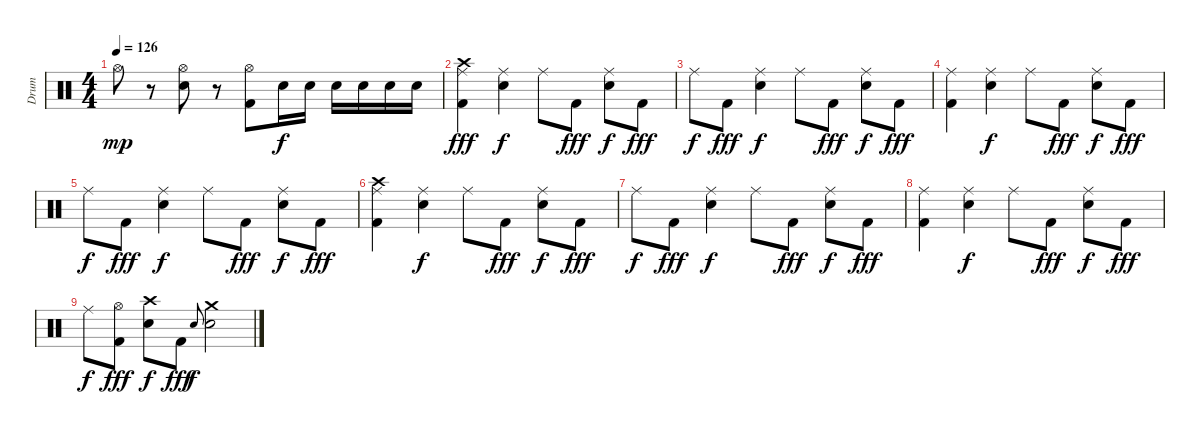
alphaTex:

\track ("Drum" "Drum") {instrument percussion}
\staff {score}
\articulation defaults
\ts (4 4)
\tempo 126
\clef neutral
\ks c "Hi-Hat (open)".8{dy mp}
r.8 ("Electric Snare (hit)" "Hi-Hat (open)").8 r.8 ("Kick (hit) 2" "Hi-Hat (open)").8 "Electric Snare (hit)".16{dy f} "Electric Snare (hit)".16 "Electric Snare (hit)".16 "Electric Snare (hit)".16 "Electric Snare (hit)".16 "Electric Snare (hit)".16 |
("Kick (hit) 2" "Ride (middle)" "Crash high (hit)").4{dy fff} ("Electric Snare (hit)" "Ride (middle)").4{dy f} "Ride (middle)".8 "Kick (hit) 2".8{dy fff} ("Electric Snare (hit)" "Ride (middle)").8{dy f} "Kick (hit) 2".8{dy fff} |
"Ride (middle)".8{dy f} "Kick (hit) 2".8{dy fff} ("Electric Snare (hit)" "Ride (middle)").4{dy f} "Ride (middle)".8 "Kick (hit) 2".8{dy fff} ("Electric Snare (hit)" "Ride (middle)").8{dy f} "Kick (hit) 2".8{dy fff} |
("Kick (hit) 2" "Ride (middle)").4 ("Electric Snare (hit)" "Ride (middle)").4{dy f} "Ride (middle)".8 "Kick (hit) 2".8{dy fff} ("Electric Snare (hit)" "Ride (middle)").8{dy f} "Kick (hit) 2".8{dy fff} |
"Ride (middle)".8{dy f} "Kick (hit) 2".8{dy fff} ("Electric Snare (hit)" "Ride (middle)").4{dy f} "Ride (middle)".8 "Kick (hit) 2".8{dy fff} ("Electric Snare (hit)" "Ride (middle)").8{dy f} "Kick (hit) 2".8{dy fff} |
("Kick (hit) 2" "Ride (middle)" "Crash high (hit)").4 ("Electric Snare (hit)" "Ride (middle)").4{dy f} "Ride (middle)".8 "Kick (hit) 2".8{dy fff} ("Electric Snare (hit)" "Ride (middle)").8{dy f} "Kick (hit) 2".8{dy fff} |
"Ride (middle)".8{dy f} "Kick (hit) 2".8{dy fff} ("Electric Snare (hit)" "Ride (middle)").4{dy f} "Ride (middle)".8 "Kick (hit) 2".8{dy fff} ("Electric Snare (hit)" "Ride (middle)").8{dy f} "Kick (hit) 2".8{dy fff} |
("Kick (hit) 2" "Ride (middle)").4 ("Electric Snare (hit)" "Ride (middle)").4{dy f} "Ride (middle)".8 "Kick (hit) 2".8{dy fff} ("Electric Snare (hit)" "Ride (middle)").8{dy f} "Kick (hit) 2".8{dy fff} |
"Ride (middle)".8{dy f} ("Kick (hit) 2" "Hi-Hat (open)").8{dy fff} ("Electric Snare (hit)" "Crash high (hit)").8{dy f} "Kick (hit) 2".8{dy fff} "Electric Snare (hit)".8{gr onbeat dy f} ("Electric Snare (hit)" "Crash medium (hit)").2
